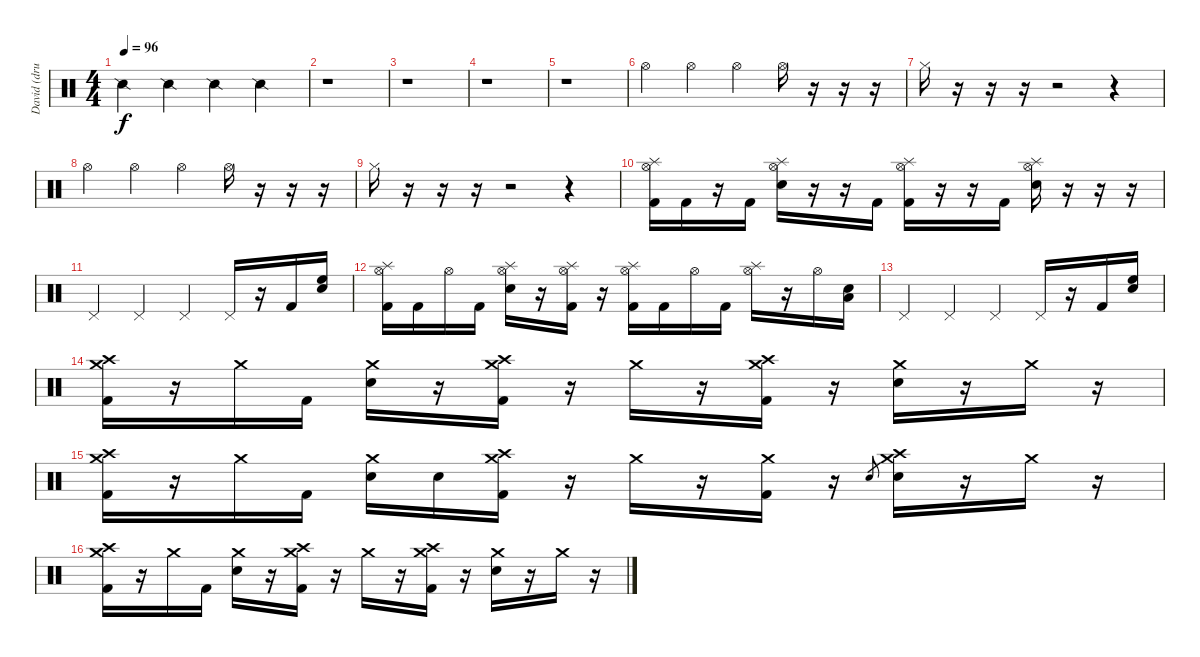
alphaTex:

\track ("David (drums)" "David (dru") {instrument percussion}
\staff {score}
\articulation defaults
\ts (4 4)
\tempo 96
\clef neutral
\ks c "Snare (side stick) 2".4{dy f} "Snare (side stick) 2".4 "Snare (side stick) 2".4 "Snare (side stick) 2".4
|
r.1 |
r.1 |
r.1 |
r.1 |
"Hi-Hat (open)".4 "Hi-Hat (open)".4 "Hi-Hat (open)".4 "Hi-Hat (open)".16 r.16 r.16 r.16 |
"Hi-Hat (closed)".16 r.16 r.16 r.16 r.2 r.4 |
"Hi-Hat (open)".4 "Hi-Hat (open)".4 "Hi-Hat (open)".4 "Hi-Hat (open)".16 r.16 r.16 r.16 |
"Hi-Hat (closed)".16 r.16 r.16 r.16 r.2 r.4 |
("Hi-Hat (open)" "Splash (hit)" "Kick (hit) 2").16 "Kick (hit) 2".16 r.16 "Kick (hit) 2".16 ("Hi-Hat (open)" "Splash (hit)" "Electric Snare (hit)").16 r.16 r.16 "Kick (hit) 2".16 ("Hi-Hat (open)" "Splash (hit)" "Kick (hit) 2").16 r.16 r.16 "Kick (hit) 2".16 ("Hi-Hat (open)" "Splash (hit)" "Electric Snare (hit)").16 r.16 r.16 r.16 |
"Pedal Hi-Hat (hit)".4 "Pedal Hi-Hat (hit)".4 "Pedal Hi-Hat (hit)".4 "Pedal Hi-Hat (hit)".16 r.16 "Kick (hit) 2".16 ("Electric Snare (hit)" "High Floor Tom (hit)").16 |
("Hi-Hat (open)" "Splash (hit)" "Kick (hit) 2").16 "Kick (hit) 2".16 "Hi-Hat (open)".16 "Kick (hit) 2".16 ("Hi-Hat (open)" "Splash (hit)" "Electric Snare (hit)").16 r.16 ("Hi-Hat (open)" "Splash (hit)" "Kick (hit) 2").16 r.16 ("Hi-Hat (open)" "Splash (hit)" "Kick (hit) 2").16 "Kick (hit) 2".16 "Hi-Hat (open)".16 "Kick (hit) 2".16 ("Hi-Hat (open)" "Splash (hit)").16 r.16 "Hi-Hat (open)".16 ("Low Floor Tom (hit)" "Electric Snare (hit)").16 |
"Pedal Hi-Hat (hit)".4 "Pedal Hi-Hat (hit)".4 "Pedal Hi-Hat (hit)".4 "Pedal Hi-Hat (hit)".16 r.16 "Kick (hit) 2".16 ("Electric Snare (hit)" "High Floor Tom (hit)").16 |
("Crash high (hit)" "Crash medium (hit)" "Kick (hit) 2").16 r.16 "Crash medium (hit)".16 "Kick (hit) 2".16 ("Crash medium (hit)" "Electric Snare (hit)").16 r.16 ("Crash high (hit)" "Crash medium (hit)" "Kick (hit) 2").16 r.16 "Crash medium (hit)".16 r.16 ("Crash high (hit)" "Crash medium (hit)" "Kick (hit) 2").16 r.16 ("Crash medium (hit)" "Electric Snare (hit)").16 r.16 "Crash medium (hit)".16 r.16 |
("Crash high (hit)" "Crash medium (hit)" "Kick (hit) 2").16 r.16 "Crash medium (hit)".16 "Kick (hit) 2".16 ("Crash medium (hit)" "Electric Snare (hit)").16 "Electric Snare (hit)".16 ("Crash high (hit)" "Crash medium (hit)" "Kick (hit) 2").16 r.16 "Crash medium (hit)".16 r.16 ("Crash medium (hit)" "Kick (hit) 2").16 r.16 "Electric Snare (hit)".8{gr} ("Crash high (hit)" "Crash medium (hit)" "Electric Snare (hit)").16 r.16 "Crash medium (hit)".16 r.16 |
("Crash high (hit)" "Crash medium (hit)" "Kick (hit) 2").16 r.16 "Crash medium (hit)".16 "Kick (hit) 2".16 ("Crash medium (hit)" "Electric Snare (hit)").16 r.16 ("Crash high (hit)" "Crash medium (hit)" "Kick (hit) 2").16 r.16 "Crash medium (hit)".16 r.16 ("Crash high (hit)" "Crash medium (hit)" "Kick (hit) 2").16 r.16 ("Crash medium (hit)" "Electric Snare (hit)").16 r.16 "Crash medium (hit)".16 r.16
